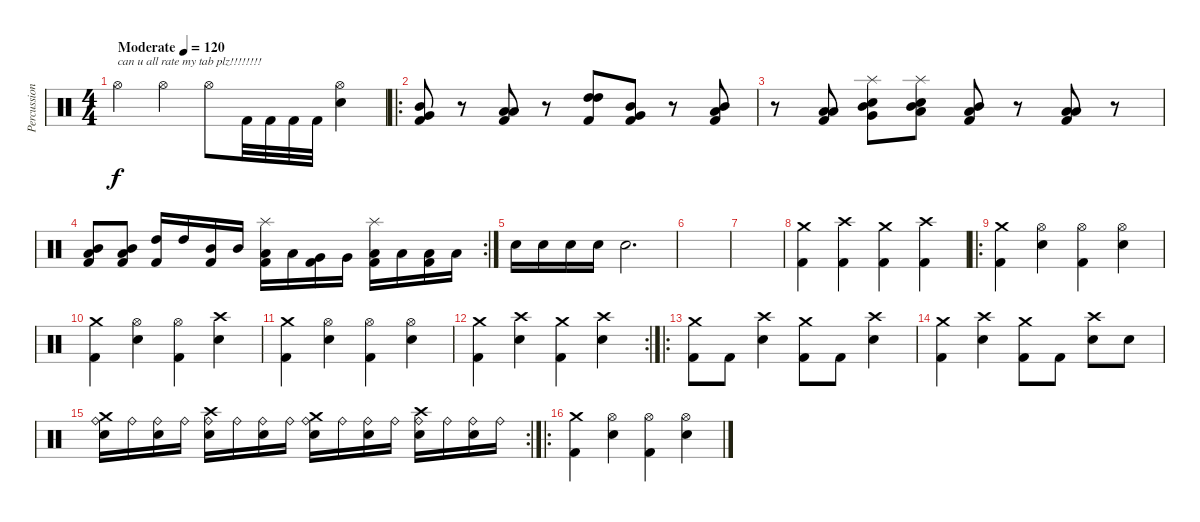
\track ("Percussion" "Percussion") {instrument percussion}
\staff {score}
\articulation defaults
\ts (4 4)
\tempo (120 "Moderate")
\clef neutral
\ks c "Hi-Hat (open)".4{txt "can u all rate my tab plz!!!!!!!!" dy f} "Hi-Hat (open)".4 "Hi-Hat (open)".8 "Kick (hit) 2".32 "Kick (hit) 2".32 "Kick (hit) 2".32 "Kick (hit) 2".32
("Hi-Hat (open)" "Snare (hit) 2").4 |
\ro
("Mid Tom (hit)" "Very Low Tom (hit)" "Kick (hit) 2").8 r.8 ("Low Tom (hit)" "Low Floor Tom (hit)" "Kick (hit) 2").8 r.8 ("High Tom (hit)" "High Tom (hit)" "Kick (hit) 2").8 ("Mid Tom (hit)" "Very Low Tom (hit)" "Kick (hit) 2").8 r.8 ("Mid Tom (hit)" "Low Tom (hit)" "Kick (hit) 2").8 |
r.8 ("Low Tom (hit)" "Low Floor Tom (hit)" "Kick (hit) 2").8 ("Mid Tom (hit)" "Very Low Tom (hit)" "Splash (hit)" "Snare (hit) 2").8 ("Mid Tom (hit)" "Low Tom (hit)" "Splash (hit)" "Snare (hit) 2").8 ("Mid Tom (hit)" "Low Tom (hit)" "Kick (hit) 2").8 r.8 ("Low Tom (hit)" "Low Floor Tom (hit)" "Kick (hit) 2").8 r.8 |
\rc 2
("Low Floor Tom (hit)" "Mid Tom (hit)" "Kick (hit) 2").8 ("Mid Tom (hit)" "Low Tom (hit)" "Kick (hit) 2").8 ("High Tom (hit)" "Kick (hit) 2").16 "High Tom (hit)".16 ("Mid Tom (hit)" "Kick (hit) 2").16 "Mid Tom (hit)".16 ("Low Tom (hit)" "Splash (hit)" "Kick (hit) 2").16 "Low Tom (hit)".16 ("Very Low Tom (hit)" "Kick (hit) 2").16 "Very Low Tom (hit)".16 ("Low Floor Tom (hit)" "Splash (hit)" "Kick (hit) 2").16 "Low Floor Tom (hit)".16 ("Low Tom (hit)" "Kick (hit) 2").16 "Low Floor Tom (hit)".16 |
"Electric Snare (hit)".16 "Electric Snare (hit)".16 "Electric Snare (hit)".16 "Electric Snare (hit)".16 "Electric Snare (hit)".2{d} |
|
|
("Crash medium (hit)" "Kick (hit) 2").4 ("Crash high (hit)" "Kick (hit) 2").4 ("Crash medium (hit)" "Kick (hit) 2").4 ("Crash high (hit)" "Kick (hit) 2").4 |
\ro
("Crash medium (hit)" "Kick (hit) 2").4 ("Hi-Hat (open)" "Electric Snare (hit)").4 ("Hi-Hat (open)" "Kick (hit) 2").4 ("Hi-Hat (open)" "Electric Snare (hit)").4 |
("Crash medium (hit)" "Kick (hit) 2").4 ("Hi-Hat (open)" "Electric Snare (hit)").4 ("Hi-Hat (open)" "Kick (hit) 2").4 ("Crash high (hit)" "Electric Snare (hit)").4 |
("Crash medium (hit)" "Kick (hit) 2").4 ("Hi-Hat (open)" "Electric Snare (hit)").4 ("Hi-Hat (open)" "Kick (hit) 2").4 ("Hi-Hat (open)" "Electric Snare (hit)").4 |
\rc 2
("Crash medium (hit)" "Kick (hit) 2").4 ("Crash high (hit)" "Electric Snare (hit)").4 ("Crash medium (hit)" "Kick (hit) 2").4 ("Crash high (hit)" "Electric Snare (hit)").4 |
\ro
("Crash medium (hit)" "Kick (hit) 2").8 "Kick (hit) 2".8 ("Crash high (hit)" "Electric Snare (hit)").4 ("Crash medium (hit)" "Kick (hit) 2").8 "Kick (hit) 2".8 ("Crash high (hit)" "Electric Snare (hit)").4 |
("Crash medium (hit)" "Kick (hit) 2").4 ("Crash high (hit)" "Electric Snare (hit)").4 ("Crash medium (hit)" "Kick (hit) 2").8 "Kick (hit) 2".8 ("Crash high (hit)" "Electric Snare (hit)").8 "Electric Snare (hit)".8 |
\rc 2
("Crash medium (hit)" "Ride (bell)" "Electric Snare (hit)").16 "Ride (bell)".16 ("Ride (bell)" "Electric Snare (hit)").16 "Ride (bell)".16 ("Crash high (hit)" "Ride (bell)" "Electric Snare (hit)").16 "Ride (bell)".16 ("Ride (bell)" "Electric Snare (hit)").16 "Ride (bell)".16 ("Crash medium (hit)" "Ride (bell)" "Electric Snare (hit)").16 "Ride (bell)".16 ("Ride (bell)" "Electric Snare (hit)").16 "Ride (bell)".16 ("Crash high (hit)" "Ride (bell)" "Electric Snare (hit)").16 "Ride (bell)".16 ("Ride (bell)" "Electric Snare (hit)").16 "Ride (bell)".16 |
\ro
("Crash medium (hit)" "Kick (hit) 2").4 ("Hi-Hat (open)" "Electric Snare (hit)").4 ("Hi-Hat (open)" "Kick (hit) 2").4 ("Hi-Hat (open)" "Electric Snare (hit)").4
